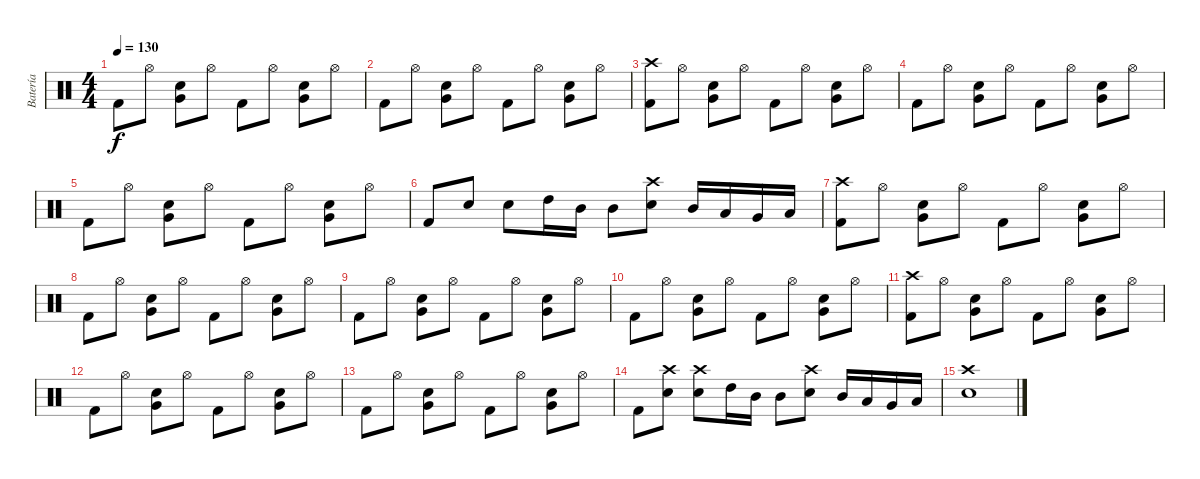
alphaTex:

\track ("Batería" "Batería") {instrument percussion}
\staff {score}
\articulation defaults
\ts (4 4)
\tempo 130
\clef neutral
\ks c "Kick (hit) 2".8{dy f} "Hi-Hat (open)".8
("Snare (hit) 2" "Very Low Tom (hit)").8 "Hi-Hat (open)".8 "Kick (hit) 2".8 "Hi-Hat (open)".8 ("Snare (hit) 2" "Very Low Tom (hit)").8 "Hi-Hat (open)".8 |
"Kick (hit) 2".8 "Hi-Hat (open)".8 ("Snare (hit) 2" "Very Low Tom (hit)").8 "Hi-Hat (open)".8 "Kick (hit) 2".8 "Hi-Hat (open)".8 ("Snare (hit) 2" "Very Low Tom (hit)").8 "Hi-Hat (open)".8 |
("Kick (hit) 2" "Crash high (hit)").8 "Hi-Hat (open)".8 ("Snare (hit) 2" "Very Low Tom (hit)").8 "Hi-Hat (open)".8 "Kick (hit) 2".8 "Hi-Hat (open)".8 ("Snare (hit) 2" "Very Low Tom (hit)").8 "Hi-Hat (open)".8 |
"Kick (hit) 2".8 "Hi-Hat (open)".8 ("Snare (hit) 2" "Very Low Tom (hit)").8 "Hi-Hat (open)".8 "Kick (hit) 2".8 "Hi-Hat (open)".8 ("Snare (hit) 2" "Very Low Tom (hit)").8 "Hi-Hat (open)".8 |
"Kick (hit) 2".8 "Hi-Hat (open)".8 ("Snare (hit) 2" "Very Low Tom (hit)").8 "Hi-Hat (open)".8 "Kick (hit) 2".8 "Hi-Hat (open)".8 ("Snare (hit) 2" "Very Low Tom (hit)").8 "Hi-Hat (open)".8 |
"Kick (hit) 2".8 "Electric Snare (hit)".8 "Electric Snare (hit)".8 "High Tom (hit)".16 "Mid Tom (hit)".16 "Mid Tom (hit)".8 ("Electric Snare (hit)" "Crash high (hit)").8 "Mid Tom (hit)".16 "Low Tom (hit)".16 "Very Low Tom (hit)".16 "Low Floor Tom (hit)".16 |
("Kick (hit) 2" "Crash high (hit)").8 "Hi-Hat (open)".8 ("Snare (hit) 2" "Very Low Tom (hit)").8 "Hi-Hat (open)".8 "Kick (hit) 2".8 "Hi-Hat (open)".8 ("Snare (hit) 2" "Very Low Tom (hit)").8 "Hi-Hat (open)".8 |
"Kick (hit) 2".8 "Hi-Hat (open)".8 ("Snare (hit) 2" "Very Low Tom (hit)").8 "Hi-Hat (open)".8 "Kick (hit) 2".8 "Hi-Hat (open)".8 ("Snare (hit) 2" "Very Low Tom (hit)").8 "Hi-Hat (open)".8 |
"Kick (hit) 2".8 "Hi-Hat (open)".8 ("Snare (hit) 2" "Very Low Tom (hit)").8 "Hi-Hat (open)".8 "Kick (hit) 2".8 "Hi-Hat (open)".8 ("Snare (hit) 2" "Very Low Tom (hit)").8 "Hi-Hat (open)".8 |
"Kick (hit) 2".8 "Hi-Hat (open)".8 ("Snare (hit) 2" "Very Low Tom (hit)").8 "Hi-Hat (open)".8 "Kick (hit) 2".8 "Hi-Hat (open)".8 ("Snare (hit) 2" "Very Low Tom (hit)").8 "Hi-Hat (open)".8 |
("Kick (hit) 2" "Crash high (hit)").8 "Hi-Hat (open)".8 ("Snare (hit) 2" "Very Low Tom (hit)").8 "Hi-Hat (open)".8 "Kick (hit) 2".8 "Hi-Hat (open)".8 ("Snare (hit) 2" "Very Low Tom (hit)").8 "Hi-Hat (open)".8 |
"Kick (hit) 2".8 "Hi-Hat (open)".8 ("Snare (hit) 2" "Very Low Tom (hit)").8 "Hi-Hat (open)".8 "Kick (hit) 2".8 "Hi-Hat (open)".8 ("Snare (hit) 2" "Very Low Tom (hit)").8 "Hi-Hat (open)".8 |
"Kick (hit) 2".8 "Hi-Hat (open)".8 ("Snare (hit) 2" "Very Low Tom (hit)").8 "Hi-Hat (open)".8 "Kick (hit) 2".8 "Hi-Hat (open)".8 ("Snare (hit) 2" "Very Low Tom (hit)").8 "Hi-Hat (open)".8 |
"Kick (hit) 2".8 ("Electric Snare (hit)" "Crash high (hit)").8 ("Electric Snare (hit)" "Crash high (hit)").8 "High Tom (hit)".16 "Mid Tom (hit)".16 "Mid Tom (hit)".8 ("Electric Snare (hit)" "Crash high (hit)").8 "Mid Tom (hit)".16 "Low Tom (hit)".16 "Very Low Tom (hit)".16 "Low Floor Tom (hit)".16 |
("Electric Snare (hit)" "Crash high (hit)").1
